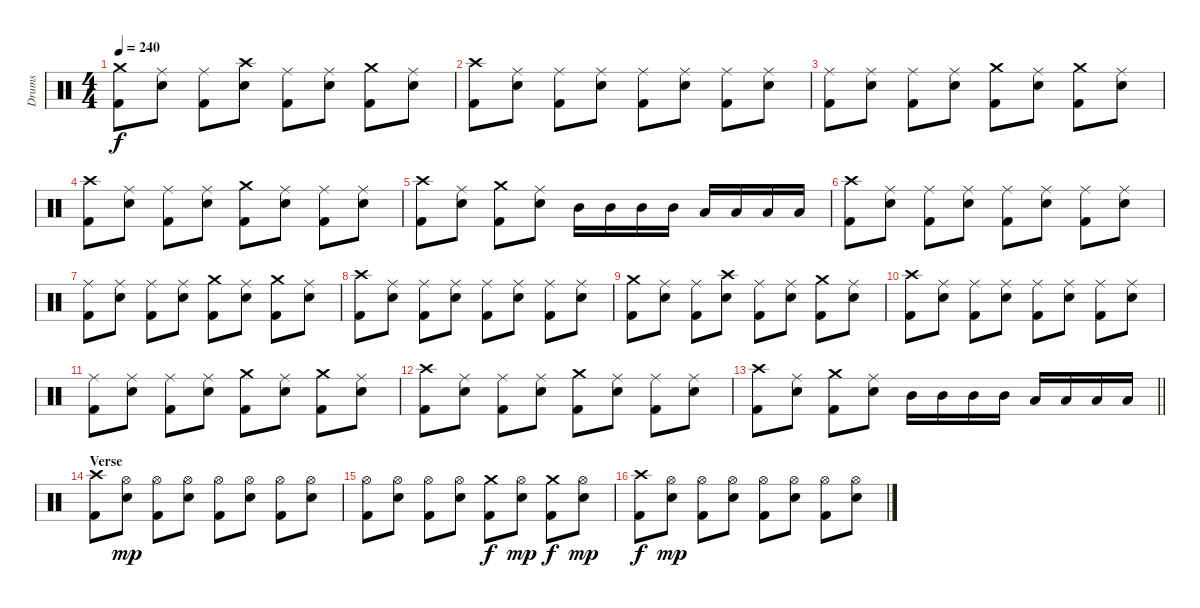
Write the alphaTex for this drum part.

\track ("Drums" "Drums") {instrument percussion}
\staff {score}
\articulation defaults
\ts (4 4)
\tempo 240
\clef neutral
\ks c
("Crash medium (hit)" "Kick (hit) 2").8{dy f} ("Ride (middle)" "Snare (hit) 2").8 ("Ride (middle)" "Kick (hit) 2").8 ("Crash high (hit)" "Snare (hit) 2").8 ("Ride (middle)" "Kick (hit) 2").8 ("Ride (middle)" "Snare (hit) 2").8 ("Crash medium (hit)" "Kick (hit) 2").8 ("Ride (middle)" "Snare (hit) 2").8 |
("Crash high (hit)" "Kick (hit) 2").8 ("Ride (middle)" "Snare (hit) 2").8 ("Ride (middle)" "Kick (hit) 2").8 ("Ride (middle)" "Snare (hit) 2").8 ("Ride (middle)" "Kick (hit) 2").8 ("Ride (middle)" "Snare (hit) 2").8 ("Ride (middle)" "Kick (hit) 2").8 ("Ride (middle)" "Snare (hit) 2").8 |
("Ride (middle)" "Kick (hit) 2").8 ("Ride (middle)" "Snare (hit) 2").8 ("Ride (middle)" "Kick (hit) 2").8 ("Ride (middle)" "Snare (hit) 2").8 ("Crash medium (hit)" "Kick (hit) 2").8 ("Ride (middle)" "Snare (hit) 2").8 ("Crash medium (hit)" "Kick (hit) 2").8 ("Ride (middle)" "Snare (hit) 2").8 |
("Crash high (hit)" "Kick (hit) 2").8 ("Ride (middle)" "Snare (hit) 2").8 ("Ride (middle)" "Kick (hit) 2").8 ("Ride (middle)" "Snare (hit) 2").8 ("Crash medium (hit)" "Kick (hit) 2").8 ("Ride (middle)" "Snare (hit) 2").8 ("Ride (middle)" "Kick (hit) 2").8 ("Ride (middle)" "Snare (hit) 2").8 |
("Crash high (hit)" "Kick (hit) 2").8 ("Ride (middle)" "Snare (hit) 2").8 ("Crash medium (hit)" "Kick (hit) 2").8 ("Ride (middle)" "Snare (hit) 2").8 "Mid Tom (hit)".16 "Mid Tom (hit)".16 "Mid Tom (hit)".16 "Mid Tom (hit)".16 "Low Tom (hit)".16 "Low Tom (hit)".16 "Low Tom (hit)".16 "Low Tom (hit)".16 |
("Crash high (hit)" "Kick (hit) 2").8 ("Ride (middle)" "Snare (hit) 2").8 ("Ride (middle)" "Kick (hit) 2").8 ("Ride (middle)" "Snare (hit) 2").8 ("Ride (middle)" "Kick (hit) 2").8 ("Ride (middle)" "Snare (hit) 2").8 ("Ride (middle)" "Kick (hit) 2").8 ("Ride (middle)" "Snare (hit) 2").8 |
("Ride (middle)" "Kick (hit) 2").8 ("Ride (middle)" "Snare (hit) 2").8 ("Ride (middle)" "Kick (hit) 2").8 ("Ride (middle)" "Snare (hit) 2").8 ("Crash medium (hit)" "Kick (hit) 2").8 ("Ride (middle)" "Snare (hit) 2").8 ("Crash medium (hit)" "Kick (hit) 2").8 ("Ride (middle)" "Snare (hit) 2").8 |
("Crash high (hit)" "Kick (hit) 2").8 ("Ride (middle)" "Snare (hit) 2").8 ("Ride (middle)" "Kick (hit) 2").8 ("Ride (middle)" "Snare (hit) 2").8 ("Ride (middle)" "Kick (hit) 2").8 ("Ride (middle)" "Snare (hit) 2").8 ("Ride (middle)" "Kick (hit) 2").8 ("Ride (middle)" "Snare (hit) 2").8 |
("Crash medium (hit)" "Kick (hit) 2").8 ("Ride (middle)" "Snare (hit) 2").8 ("Ride (middle)" "Kick (hit) 2").8 ("Crash high (hit)" "Snare (hit) 2").8 ("Ride (middle)" "Kick (hit) 2").8 ("Ride (middle)" "Snare (hit) 2").8 ("Crash medium (hit)" "Kick (hit) 2").8 ("Ride (middle)" "Snare (hit) 2").8 |
("Crash high (hit)" "Kick (hit) 2").8 ("Ride (middle)" "Snare (hit) 2").8 ("Ride (middle)" "Kick (hit) 2").8 ("Ride (middle)" "Snare (hit) 2").8 ("Ride (middle)" "Kick (hit) 2").8 ("Ride (middle)" "Snare (hit) 2").8 ("Ride (middle)" "Kick (hit) 2").8 ("Ride (middle)" "Snare (hit) 2").8 |
("Ride (middle)" "Kick (hit) 2").8 ("Ride (middle)" "Snare (hit) 2").8 ("Ride (middle)" "Kick (hit) 2").8 ("Ride (middle)" "Snare (hit) 2").8 ("Crash medium (hit)" "Kick (hit) 2").8 ("Ride (middle)" "Snare (hit) 2").8 ("Crash medium (hit)" "Kick (hit) 2").8 ("Ride (middle)" "Snare (hit) 2").8 |
("Crash high (hit)" "Kick (hit) 2").8 ("Ride (middle)" "Snare (hit) 2").8 ("Ride (middle)" "Kick (hit) 2").8 ("Ride (middle)" "Snare (hit) 2").8 ("Crash medium (hit)" "Kick (hit) 2").8 ("Ride (middle)" "Snare (hit) 2").8 ("Ride (middle)" "Kick (hit) 2").8 ("Ride (middle)" "Snare (hit) 2").8 |
\barLineRight lightlight
("Crash high (hit)" "Kick (hit) 2").8 ("Ride (middle)" "Snare (hit) 2").8 ("Crash medium (hit)" "Kick (hit) 2").8 ("Ride (middle)" "Snare (hit) 2").8 "Mid Tom (hit)".16 "Mid Tom (hit)".16 "Mid Tom (hit)".16 "Mid Tom (hit)".16 "Low Tom (hit)".16 "Low Tom (hit)".16 "Low Tom (hit)".16 "Low Tom (hit)".16 |
\section ("" "Verse")
("Crash high (hit)" "Kick (hit) 2").8 ("Hi-Hat (open)" "Snare (hit) 2").8{dy mp} ("Hi-Hat (open)" "Kick (hit) 2").8 ("Hi-Hat (open)" "Snare (hit) 2").8 ("Hi-Hat (open)" "Kick (hit) 2").8 ("Hi-Hat (open)" "Snare (hit) 2").8 ("Hi-Hat (open)" "Kick (hit) 2").8 ("Hi-Hat (open)" "Snare (hit) 2").8 |
("Hi-Hat (open)" "Kick (hit) 2").8 ("Hi-Hat (open)" "Snare (hit) 2").8 ("Hi-Hat (open)" "Kick (hit) 2").8 ("Hi-Hat (open)" "Snare (hit) 2").8 ("Crash medium (hit)" "Kick (hit) 2").8{dy f} ("Hi-Hat (open)" "Snare (hit) 2").8{dy mp} ("Crash medium (hit)" "Kick (hit) 2").8{dy f} ("Hi-Hat (open)" "Snare (hit) 2").8{dy mp} |
("Crash high (hit)" "Kick (hit) 2").8{dy f} ("Hi-Hat (open)" "Snare (hit) 2").8{dy mp} ("Hi-Hat (open)" "Kick (hit) 2").8 ("Hi-Hat (open)" "Snare (hit) 2").8 ("Hi-Hat (open)" "Kick (hit) 2").8 ("Hi-Hat (open)" "Snare (hit) 2").8 ("Hi-Hat (open)" "Kick (hit) 2").8 ("Hi-Hat (open)" "Snare (hit) 2").8
